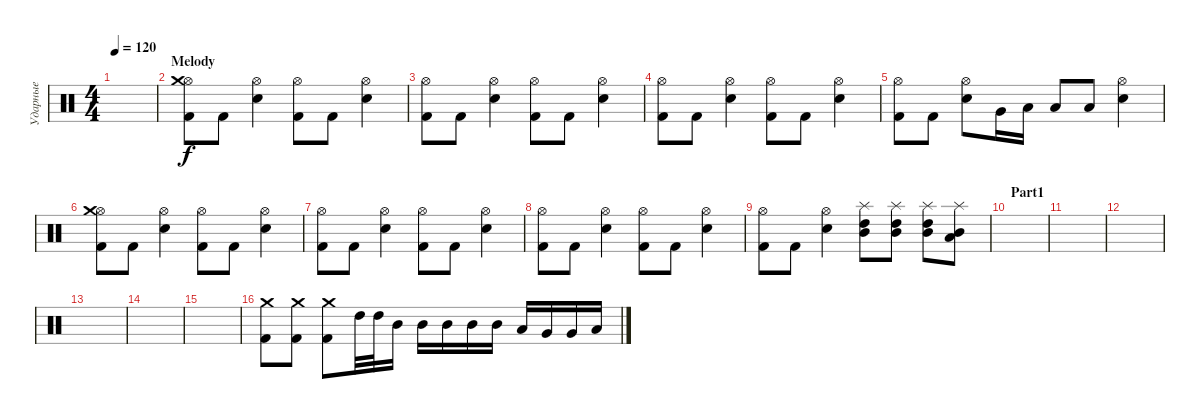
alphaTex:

\track ("Ударные" "Ударные") {instrument percussion}
\staff {score}
\articulation defaults
\ts (4 4)
\tempo 120
\clef neutral
\ks c
|
\section ("" "Melody")
("Hi-Hat (open)" "Kick (hit) 2" "Crash medium (hit)").8 "Kick (hit) 2".8 ("Hi-Hat (open)" "Electric Snare (hit)").4 ("Hi-Hat (open)" "Kick (hit) 2").8 "Kick (hit) 2".8 ("Hi-Hat (open)" "Electric Snare (hit)").4 |
("Hi-Hat (open)" "Kick (hit) 2").8 "Kick (hit) 2".8 ("Hi-Hat (open)" "Electric Snare (hit)").4 ("Hi-Hat (open)" "Kick (hit) 2").8 "Kick (hit) 2".8 ("Hi-Hat (open)" "Electric Snare (hit)").4 |
("Hi-Hat (open)" "Kick (hit) 2").8 "Kick (hit) 2".8 ("Hi-Hat (open)" "Electric Snare (hit)").4 ("Hi-Hat (open)" "Kick (hit) 2").8 "Kick (hit) 2".8 ("Hi-Hat (open)" "Electric Snare (hit)").4 |
("Hi-Hat (open)" "Kick (hit) 2").8 "Kick (hit) 2".8 ("Hi-Hat (open)" "Electric Snare (hit)").8 "Very Low Tom (hit)".16 "Low Floor Tom (hit)".16 "Low Floor Tom (hit)".8 "Low Floor Tom (hit)".8 ("Hi-Hat (open)" "Electric Snare (hit)").4 |
("Hi-Hat (open)" "Kick (hit) 2" "Crash medium (hit)").8 "Kick (hit) 2".8 ("Hi-Hat (open)" "Electric Snare (hit)").4 ("Hi-Hat (open)" "Kick (hit) 2").8 "Kick (hit) 2".8 ("Hi-Hat (open)" "Electric Snare (hit)").4 |
("Hi-Hat (open)" "Kick (hit) 2").8 "Kick (hit) 2".8 ("Hi-Hat (open)" "Electric Snare (hit)").4 ("Hi-Hat (open)" "Kick (hit) 2").8 "Kick (hit) 2".8 ("Hi-Hat (open)" "Electric Snare (hit)").4 |
("Hi-Hat (open)" "Kick (hit) 2").8 "Kick (hit) 2".8 ("Hi-Hat (open)" "Electric Snare (hit)").4 ("Hi-Hat (open)" "Kick (hit) 2").8 "Kick (hit) 2".8 ("Hi-Hat (open)" "Electric Snare (hit)").4 |
("Hi-Hat (open)" "Kick (hit) 2").8 "Kick (hit) 2".8 ("Hi-Hat (open)" "Electric Snare (hit)").4 ("Mid Tom (hit)" "High Tom (hit)" "Splash (hit)").8 ("Mid Tom (hit)" "High Tom (hit)" "Splash (hit)").8 ("Mid Tom (hit)" "High Tom (hit)" "Splash (hit)").8 ("Low Tom (hit)" "Mid Tom (hit)" "Splash (hit)").8 |
\section ("" "Part1 ")
|
|
|
|
|
|
("Crash medium (hit)" "Kick (hit) 2").8 ("Crash medium (hit)" "Kick (hit) 2").8 ("Crash medium (hit)" "Kick (hit) 2").8 "High Tom (hit)".32 "High Tom (hit)".32 "Mid Tom (hit)".16 "Mid Tom (hit)".16 "Mid Tom (hit)".16 "Mid Tom (hit)".16 "Mid Tom (hit)".16 "Low Tom (hit)".16 "Very Low Tom (hit)".16 "Very Low Tom (hit)".16 "Low Floor Tom (hit)".16
